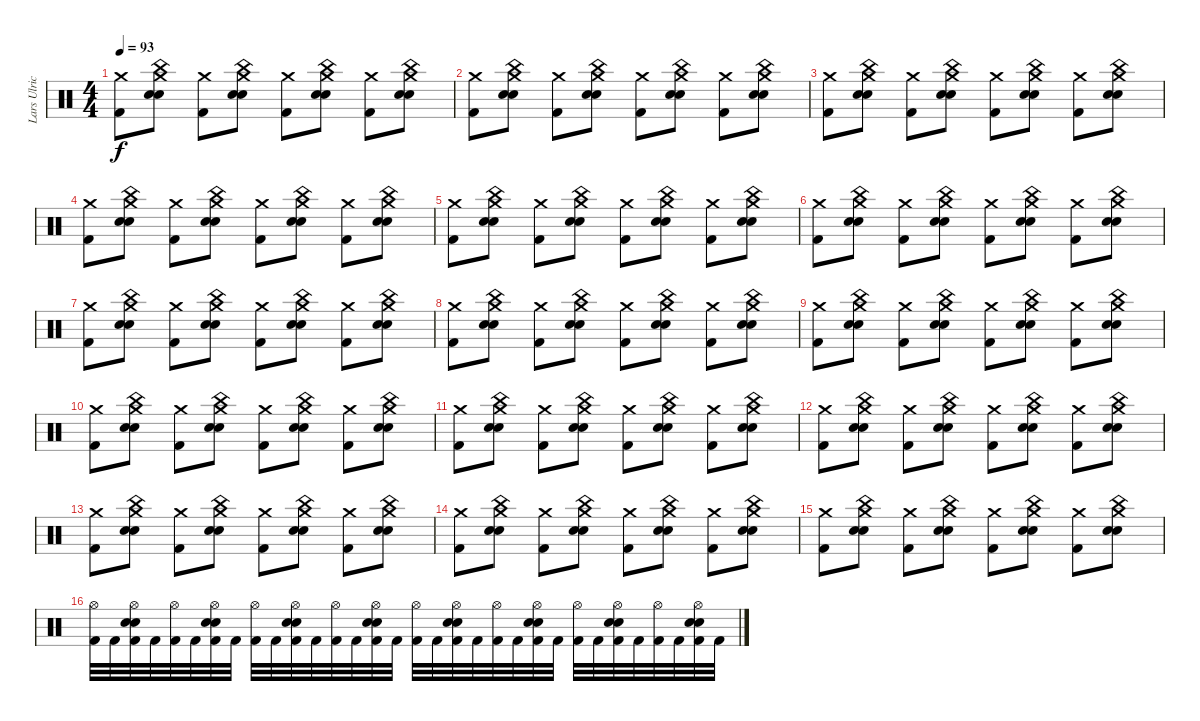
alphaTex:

\track ("Lars Ulrich" "Lars Ulric") {instrument percussion}
\staff {score}
\articulation defaults
\ts (4 4)
\tempo 93
\clef neutral
\ks c
("Crash medium (hit)" "Kick (hit) 2").8{dy f} ("Crash medium (hit)" "China (hit)" "Electric Snare (hit)" "Snare (hit) 2").8 ("Crash medium (hit)" "Kick (hit) 2").8 ("Crash medium (hit)" "China (hit)" "Electric Snare (hit)" "Snare (hit) 2").8 ("Crash medium (hit)" "Kick (hit) 2").8 ("Crash medium (hit)" "China (hit)" "Electric Snare (hit)" "Snare (hit) 2").8 ("Crash medium (hit)" "Kick (hit) 2").8 ("Crash medium (hit)" "China (hit)" "Electric Snare (hit)" "Snare (hit) 2").8 |
("Crash medium (hit)" "Kick (hit) 2").8 ("Crash medium (hit)" "China (hit)" "Electric Snare (hit)" "Snare (hit) 2").8 ("Crash medium (hit)" "Kick (hit) 2").8 ("Crash medium (hit)" "China (hit)" "Electric Snare (hit)" "Snare (hit) 2").8 ("Crash medium (hit)" "Kick (hit) 2").8 ("Crash medium (hit)" "China (hit)" "Electric Snare (hit)" "Snare (hit) 2").8 ("Crash medium (hit)" "Kick (hit) 2").8 ("Crash medium (hit)" "China (hit)" "Electric Snare (hit)" "Snare (hit) 2").8 |
("Crash medium (hit)" "Kick (hit) 2").8 ("Crash medium (hit)" "China (hit)" "Electric Snare (hit)" "Snare (hit) 2").8 ("Crash medium (hit)" "Kick (hit) 2").8 ("Crash medium (hit)" "China (hit)" "Electric Snare (hit)" "Snare (hit) 2").8 ("Crash medium (hit)" "Kick (hit) 2").8 ("Crash medium (hit)" "China (hit)" "Electric Snare (hit)" "Snare (hit) 2").8 ("Crash medium (hit)" "Kick (hit) 2").8 ("Crash medium (hit)" "China (hit)" "Electric Snare (hit)" "Snare (hit) 2").8 |
("Crash medium (hit)" "Kick (hit) 2").8 ("Crash medium (hit)" "China (hit)" "Electric Snare (hit)" "Snare (hit) 2").8 ("Crash medium (hit)" "Kick (hit) 2").8 ("Crash medium (hit)" "China (hit)" "Electric Snare (hit)" "Snare (hit) 2").8 ("Crash medium (hit)" "Kick (hit) 2").8 ("Crash medium (hit)" "China (hit)" "Electric Snare (hit)" "Snare (hit) 2").8 ("Crash medium (hit)" "Kick (hit) 2").8 ("Crash medium (hit)" "China (hit)" "Electric Snare (hit)" "Snare (hit) 2").8 |
("Crash medium (hit)" "Kick (hit) 2").8 ("Crash medium (hit)" "China (hit)" "Electric Snare (hit)" "Snare (hit) 2").8 ("Crash medium (hit)" "Kick (hit) 2").8 ("Crash medium (hit)" "China (hit)" "Electric Snare (hit)" "Snare (hit) 2").8 ("Crash medium (hit)" "Kick (hit) 2").8 ("Crash medium (hit)" "China (hit)" "Electric Snare (hit)" "Snare (hit) 2").8 ("Crash medium (hit)" "Kick (hit) 2").8 ("Crash medium (hit)" "China (hit)" "Electric Snare (hit)" "Snare (hit) 2").8 |
("Crash medium (hit)" "Kick (hit) 2").8 ("Crash medium (hit)" "China (hit)" "Electric Snare (hit)" "Snare (hit) 2").8 ("Crash medium (hit)" "Kick (hit) 2").8 ("Crash medium (hit)" "China (hit)" "Electric Snare (hit)" "Snare (hit) 2").8 ("Crash medium (hit)" "Kick (hit) 2").8 ("Crash medium (hit)" "China (hit)" "Electric Snare (hit)" "Snare (hit) 2").8 ("Crash medium (hit)" "Kick (hit) 2").8 ("Crash medium (hit)" "China (hit)" "Electric Snare (hit)" "Snare (hit) 2").8 |
("Crash medium (hit)" "Kick (hit) 2").8 ("Crash medium (hit)" "China (hit)" "Electric Snare (hit)" "Snare (hit) 2").8 ("Crash medium (hit)" "Kick (hit) 2").8 ("Crash medium (hit)" "China (hit)" "Electric Snare (hit)" "Snare (hit) 2").8 ("Crash medium (hit)" "Kick (hit) 2").8 ("Crash medium (hit)" "China (hit)" "Electric Snare (hit)" "Snare (hit) 2").8 ("Crash medium (hit)" "Kick (hit) 2").8 ("Crash medium (hit)" "China (hit)" "Electric Snare (hit)" "Snare (hit) 2").8 |
("Crash medium (hit)" "Kick (hit) 2").8 ("Crash medium (hit)" "China (hit)" "Electric Snare (hit)" "Snare (hit) 2").8 ("Crash medium (hit)" "Kick (hit) 2").8 ("Crash medium (hit)" "China (hit)" "Electric Snare (hit)" "Snare (hit) 2").8 ("Crash medium (hit)" "Kick (hit) 2").8 ("Crash medium (hit)" "China (hit)" "Electric Snare (hit)" "Snare (hit) 2").8 ("Crash medium (hit)" "Kick (hit) 2").8 ("Crash medium (hit)" "China (hit)" "Electric Snare (hit)" "Snare (hit) 2").8 |
("Crash medium (hit)" "Kick (hit) 2").8 ("Crash medium (hit)" "China (hit)" "Electric Snare (hit)" "Snare (hit) 2").8 ("Crash medium (hit)" "Kick (hit) 2").8 ("Crash medium (hit)" "China (hit)" "Electric Snare (hit)" "Snare (hit) 2").8 ("Crash medium (hit)" "Kick (hit) 2").8 ("Crash medium (hit)" "China (hit)" "Electric Snare (hit)" "Snare (hit) 2").8 ("Crash medium (hit)" "Kick (hit) 2").8 ("Crash medium (hit)" "China (hit)" "Electric Snare (hit)" "Snare (hit) 2").8 |
("Crash medium (hit)" "Kick (hit) 2").8 ("Crash medium (hit)" "China (hit)" "Electric Snare (hit)" "Snare (hit) 2").8 ("Crash medium (hit)" "Kick (hit) 2").8 ("Crash medium (hit)" "China (hit)" "Electric Snare (hit)" "Snare (hit) 2").8 ("Crash medium (hit)" "Kick (hit) 2").8 ("Crash medium (hit)" "China (hit)" "Electric Snare (hit)" "Snare (hit) 2").8 ("Crash medium (hit)" "Kick (hit) 2").8 ("Crash medium (hit)" "China (hit)" "Electric Snare (hit)" "Snare (hit) 2").8 |
("Crash medium (hit)" "Kick (hit) 2").8 ("Crash medium (hit)" "China (hit)" "Electric Snare (hit)" "Snare (hit) 2").8 ("Crash medium (hit)" "Kick (hit) 2").8 ("Crash medium (hit)" "China (hit)" "Electric Snare (hit)" "Snare (hit) 2").8 ("Crash medium (hit)" "Kick (hit) 2").8 ("Crash medium (hit)" "China (hit)" "Electric Snare (hit)" "Snare (hit) 2").8 ("Crash medium (hit)" "Kick (hit) 2").8 ("Crash medium (hit)" "China (hit)" "Electric Snare (hit)" "Snare (hit) 2").8 |
("Crash medium (hit)" "Kick (hit) 2").8 ("Crash medium (hit)" "China (hit)" "Electric Snare (hit)" "Snare (hit) 2").8 ("Crash medium (hit)" "Kick (hit) 2").8 ("Crash medium (hit)" "China (hit)" "Electric Snare (hit)" "Snare (hit) 2").8 ("Crash medium (hit)" "Kick (hit) 2").8 ("Crash medium (hit)" "China (hit)" "Electric Snare (hit)" "Snare (hit) 2").8 ("Crash medium (hit)" "Kick (hit) 2").8 ("Crash medium (hit)" "China (hit)" "Electric Snare (hit)" "Snare (hit) 2").8 |
("Crash medium (hit)" "Kick (hit) 2").8 ("Crash medium (hit)" "China (hit)" "Electric Snare (hit)" "Snare (hit) 2").8 ("Crash medium (hit)" "Kick (hit) 2").8 ("Crash medium (hit)" "China (hit)" "Electric Snare (hit)" "Snare (hit) 2").8 ("Crash medium (hit)" "Kick (hit) 2").8 ("Crash medium (hit)" "China (hit)" "Electric Snare (hit)" "Snare (hit) 2").8 ("Crash medium (hit)" "Kick (hit) 2").8 ("Crash medium (hit)" "China (hit)" "Electric Snare (hit)" "Snare (hit) 2").8 |
("Crash medium (hit)" "Kick (hit) 2").8 ("Crash medium (hit)" "China (hit)" "Electric Snare (hit)" "Snare (hit) 2").8 ("Crash medium (hit)" "Kick (hit) 2").8 ("Crash medium (hit)" "China (hit)" "Electric Snare (hit)" "Snare (hit) 2").8 ("Crash medium (hit)" "Kick (hit) 2").8 ("Crash medium (hit)" "China (hit)" "Electric Snare (hit)" "Snare (hit) 2").8 ("Crash medium (hit)" "Kick (hit) 2").8 ("Crash medium (hit)" "China (hit)" "Electric Snare (hit)" "Snare (hit) 2").8 |
("Crash medium (hit)" "Kick (hit) 2").8 ("Crash medium (hit)" "China (hit)" "Electric Snare (hit)" "Snare (hit) 2").8 ("Crash medium (hit)" "Kick (hit) 2").8 ("Crash medium (hit)" "China (hit)" "Electric Snare (hit)" "Snare (hit) 2").8 ("Crash medium (hit)" "Kick (hit) 2").8 ("Crash medium (hit)" "China (hit)" "Electric Snare (hit)" "Snare (hit) 2").8 ("Crash medium (hit)" "Kick (hit) 2").8 ("Crash medium (hit)" "China (hit)" "Electric Snare (hit)" "Snare (hit) 2").8 |
("Hi-Hat (open)" "Kick (hit) 2").32 "Kick (hit) 2".32 ("Hi-Hat (open)" "Electric Snare (hit)" "Snare (hit) 2" "Kick (hit) 2").32 "Kick (hit) 2".32 ("Hi-Hat (open)" "Kick (hit) 2").32 "Kick (hit) 2".32 ("Hi-Hat (open)" "Electric Snare (hit)" "Snare (hit) 2" "Kick (hit) 2").32 "Kick (hit) 2".32 ("Hi-Hat (open)" "Kick (hit) 2").32 "Kick (hit) 2".32 ("Hi-Hat (open)" "Electric Snare (hit)" "Snare (hit) 2" "Kick (hit) 2").32 "Kick (hit) 2".32 ("Hi-Hat (open)" "Kick (hit) 2").32 "Kick (hit) 2".32 ("Hi-Hat (open)" "Electric Snare (hit)" "Snare (hit) 2" "Kick (hit) 2").32 "Kick (hit) 2".32 ("Hi-Hat (open)" "Kick (hit) 2").32 "Kick (hit) 2".32 ("Hi-Hat (open)" "Electric Snare (hit)" "Snare (hit) 2" "Kick (hit) 2").32 "Kick (hit) 2".32 ("Hi-Hat (open)" "Kick (hit) 2").32 "Kick (hit) 2".32 ("Hi-Hat (open)" "Electric Snare (hit)" "Snare (hit) 2" "Kick (hit) 2").32 "Kick (hit) 2".32 ("Hi-Hat (open)" "Kick (hit) 2").32 "Kick (hit) 2".32 ("Hi-Hat (open)" "Electric Snare (hit)" "Snare (hit) 2" "Kick (hit) 2").32 "Kick (hit) 2".32 ("Hi-Hat (open)" "Kick (hit) 2").32 "Kick (hit) 2".32 ("Hi-Hat (open)" "Electric Snare (hit)" "Snare (hit) 2" "Kick (hit) 2").32 "Kick (hit) 2".32
